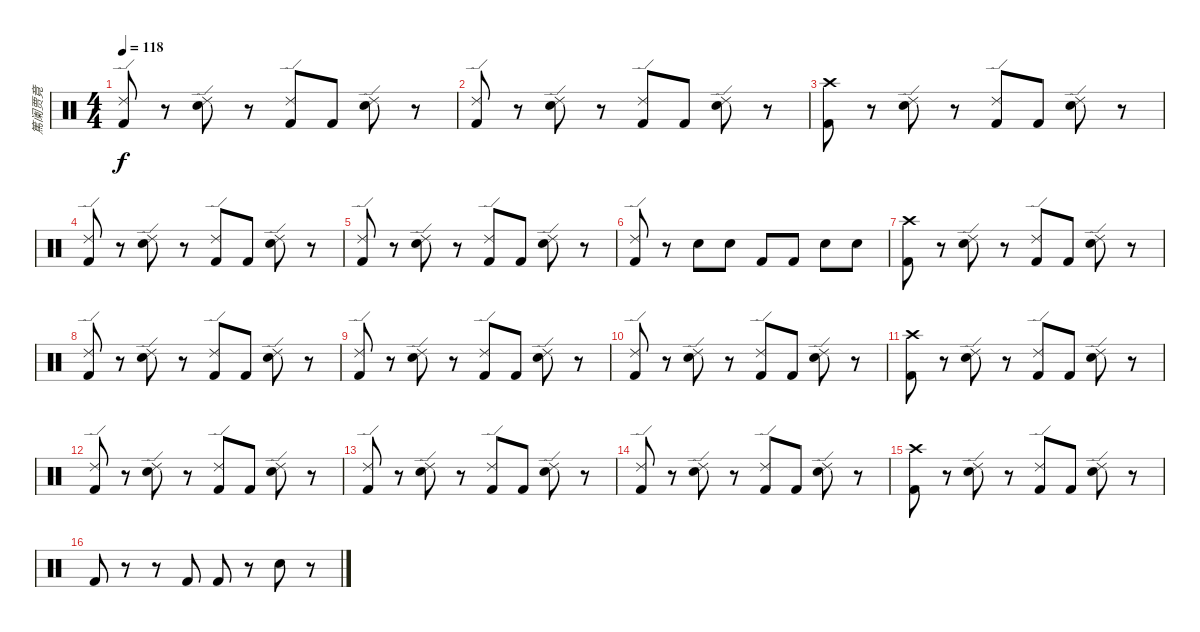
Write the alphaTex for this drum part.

\track ("篤阑贾竟" "篤阑贾竟") {instrument percussion}
\staff {score}
\articulation defaults
\ts (4 4)
\tempo 118
\clef neutral
\ks c
("Ride (edge) 2" "Kick (hit) 2").8{dy f} r.8 ("Ride (edge) 2" "Snare (hit) 2").8 r.8 ("Ride (edge) 2" "Kick (hit) 2").8 "Kick (hit) 2".8 ("Ride (edge) 2" "Snare (hit) 2").8 r.8 |
("Ride (edge) 2" "Kick (hit) 2").8 r.8 ("Ride (edge) 2" "Snare (hit) 2").8 r.8 ("Ride (edge) 2" "Kick (hit) 2").8 "Kick (hit) 2".8 ("Ride (edge) 2" "Snare (hit) 2").8 r.8 |
("Crash high (hit)" "Kick (hit) 2").8 r.8 ("Ride (edge) 2" "Snare (hit) 2").8 r.8 ("Ride (edge) 2" "Kick (hit) 2").8 "Kick (hit) 2".8 ("Ride (edge) 2" "Snare (hit) 2").8 r.8 |
("Ride (edge) 2" "Kick (hit) 2").8 r.8 ("Ride (edge) 2" "Snare (hit) 2").8 r.8 ("Ride (edge) 2" "Kick (hit) 2").8 "Kick (hit) 2".8 ("Ride (edge) 2" "Snare (hit) 2").8 r.8 |
("Ride (edge) 2" "Kick (hit) 2").8 r.8 ("Ride (edge) 2" "Snare (hit) 2").8 r.8 ("Ride (edge) 2" "Kick (hit) 2").8 "Kick (hit) 2".8 ("Ride (edge) 2" "Snare (hit) 2").8 r.8 |
("Ride (edge) 2" "Kick (hit) 2").8 r.8 "Snare (hit) 2".8 "Snare (hit) 2".8 "Kick (hit) 2".8 "Kick (hit) 2".8 "Snare (hit) 2".8 "Snare (hit) 2".8 |
("Crash high (hit)" "Kick (hit) 2").8 r.8 ("Ride (edge) 2" "Snare (hit) 2").8 r.8 ("Ride (edge) 2" "Kick (hit) 2").8 "Kick (hit) 2".8 ("Ride (edge) 2" "Snare (hit) 2").8 r.8 |
("Ride (edge) 2" "Kick (hit) 2").8 r.8 ("Ride (edge) 2" "Snare (hit) 2").8 r.8 ("Ride (edge) 2" "Kick (hit) 2").8 "Kick (hit) 2".8 ("Ride (edge) 2" "Snare (hit) 2").8 r.8 |
("Ride (edge) 2" "Kick (hit) 2").8 r.8 ("Ride (edge) 2" "Snare (hit) 2").8 r.8 ("Ride (edge) 2" "Kick (hit) 2").8 "Kick (hit) 2".8 ("Ride (edge) 2" "Snare (hit) 2").8 r.8 |
("Ride (edge) 2" "Kick (hit) 2").8 r.8 ("Ride (edge) 2" "Snare (hit) 2").8 r.8 ("Ride (edge) 2" "Kick (hit) 2").8 "Kick (hit) 2".8 ("Ride (edge) 2" "Snare (hit) 2").8 r.8 |
("Crash high (hit)" "Kick (hit) 2").8 r.8 ("Ride (edge) 2" "Snare (hit) 2").8 r.8 ("Ride (edge) 2" "Kick (hit) 2").8 "Kick (hit) 2".8 ("Ride (edge) 2" "Snare (hit) 2").8 r.8 |
("Ride (edge) 2" "Kick (hit) 2").8 r.8 ("Ride (edge) 2" "Snare (hit) 2").8 r.8 ("Ride (edge) 2" "Kick (hit) 2").8 "Kick (hit) 2".8 ("Ride (edge) 2" "Snare (hit) 2").8 r.8 |
("Ride (edge) 2" "Kick (hit) 2").8 r.8 ("Ride (edge) 2" "Snare (hit) 2").8 r.8 ("Ride (edge) 2" "Kick (hit) 2").8 "Kick (hit) 2".8 ("Ride (edge) 2" "Snare (hit) 2").8 r.8 |
("Ride (edge) 2" "Kick (hit) 2").8 r.8 ("Ride (edge) 2" "Snare (hit) 2").8 r.8 ("Ride (edge) 2" "Kick (hit) 2").8 "Kick (hit) 2".8 ("Ride (edge) 2" "Snare (hit) 2").8 r.8 |
("Crash high (hit)" "Kick (hit) 2").8 r.8 ("Ride (edge) 2" "Snare (hit) 2").8 r.8 ("Ride (edge) 2" "Kick (hit) 2").8 "Kick (hit) 2".8 ("Ride (edge) 2" "Snare (hit) 2").8 r.8 |
"Kick (hit) 2".8 r.8 r.8 "Kick (hit) 2".8 "Kick (hit) 2".8 r.8 "Snare (hit) 2".8 r.8
